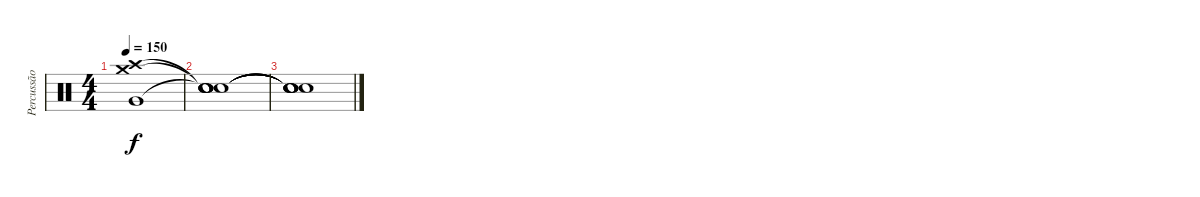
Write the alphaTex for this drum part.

\track ("Percussão" "Percussão") {instrument percussion}
\staff {score}
\articulation defaults
\ts (4 4)
\tempo 150
\clef neutral
\ks c
("Crash high (hit)" "Crash medium (hit)" "Very Low Tom (hit)").1{dy f} |
("Snare (hit)"{t} "Snare (hit)"{t} "Snare (hit)"{t} "Snare (hit)"{t} "Snare (hit)").1 |
("Snare (hit)"{t} "Snare (hit)"{t} "Snare (hit)"{t} "Snare (hit)"{t} "Snare (hit)"{t}).1
